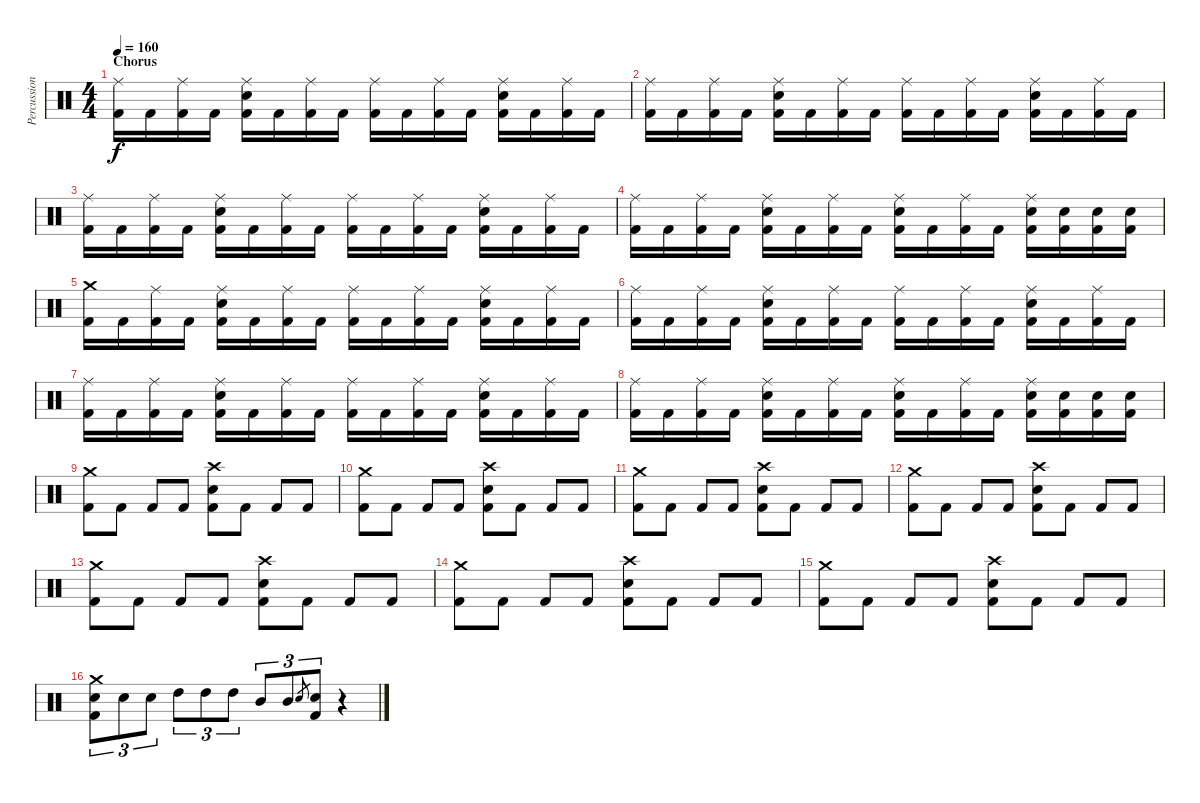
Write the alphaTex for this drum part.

\track ("Percussions" "Percussion") {instrument percussion}
\staff {score}
\articulation defaults
\ts (4 4)
\section ("" "Chorus")
\tempo 160
\clef neutral
\ks c
("Ride (middle)" "Kick (hit) 2").16{dy f} "Kick (hit) 2".16 ("Ride (middle)" "Kick (hit) 2").16 "Kick (hit) 2".16 ("Ride (middle)" "Electric Snare (hit)" "Kick (hit) 2").16 "Kick (hit) 2".16 ("Ride (middle)" "Kick (hit) 2").16 "Kick (hit) 2".16 ("Ride (middle)" "Kick (hit) 2").16 "Kick (hit) 2".16 ("Ride (middle)" "Kick (hit) 2").16 "Kick (hit) 2".16 ("Ride (middle)" "Electric Snare (hit)" "Kick (hit) 2").16 "Kick (hit) 2".16 ("Ride (middle)" "Kick (hit) 2").16 "Kick (hit) 2".16 |
("Ride (middle)" "Kick (hit) 2").16 "Kick (hit) 2".16 ("Ride (middle)" "Kick (hit) 2").16 "Kick (hit) 2".16 ("Ride (middle)" "Electric Snare (hit)" "Kick (hit) 2").16 "Kick (hit) 2".16 ("Ride (middle)" "Kick (hit) 2").16 "Kick (hit) 2".16 ("Ride (middle)" "Kick (hit) 2").16 "Kick (hit) 2".16 ("Ride (middle)" "Kick (hit) 2").16 "Kick (hit) 2".16 ("Ride (middle)" "Electric Snare (hit)" "Kick (hit) 2").16 "Kick (hit) 2".16 ("Ride (middle)" "Kick (hit) 2").16 "Kick (hit) 2".16 |
("Ride (middle)" "Kick (hit) 2").16 "Kick (hit) 2".16 ("Ride (middle)" "Kick (hit) 2").16 "Kick (hit) 2".16 ("Ride (middle)" "Electric Snare (hit)" "Kick (hit) 2").16 "Kick (hit) 2".16 ("Ride (middle)" "Kick (hit) 2").16 "Kick (hit) 2".16 ("Ride (middle)" "Kick (hit) 2").16 "Kick (hit) 2".16 ("Ride (middle)" "Kick (hit) 2").16 "Kick (hit) 2".16 ("Ride (middle)" "Electric Snare (hit)" "Kick (hit) 2").16 "Kick (hit) 2".16 ("Ride (middle)" "Kick (hit) 2").16 "Kick (hit) 2".16 |
("Ride (middle)" "Kick (hit) 2").16 "Kick (hit) 2".16 ("Ride (middle)" "Kick (hit) 2").16 "Kick (hit) 2".16 ("Ride (middle)" "Electric Snare (hit)" "Kick (hit) 2").16 "Kick (hit) 2".16 ("Ride (middle)" "Kick (hit) 2").16 "Kick (hit) 2".16 ("Ride (middle)" "Electric Snare (hit)" "Kick (hit) 2").16 "Kick (hit) 2".16 ("Ride (middle)" "Kick (hit) 2").16 "Kick (hit) 2".16 ("Ride (middle)" "Electric Snare (hit)" "Kick (hit) 2").16 ("Electric Snare (hit)" "Kick (hit) 2").16 ("Electric Snare (hit)" "Kick (hit) 2").16 ("Electric Snare (hit)" "Kick (hit) 2").16 |
("Crash medium (hit)" "Kick (hit) 2").16 "Kick (hit) 2".16 ("Ride (middle)" "Kick (hit) 2").16 "Kick (hit) 2".16 ("Ride (middle)" "Electric Snare (hit)" "Kick (hit) 2").16 "Kick (hit) 2".16 ("Ride (middle)" "Kick (hit) 2").16 "Kick (hit) 2".16 ("Ride (middle)" "Kick (hit) 2").16 "Kick (hit) 2".16 ("Ride (middle)" "Kick (hit) 2").16 "Kick (hit) 2".16 ("Ride (middle)" "Electric Snare (hit)" "Kick (hit) 2").16 "Kick (hit) 2".16 ("Ride (middle)" "Kick (hit) 2").16 "Kick (hit) 2".16 |
("Ride (middle)" "Kick (hit) 2").16 "Kick (hit) 2".16 ("Ride (middle)" "Kick (hit) 2").16 "Kick (hit) 2".16 ("Ride (middle)" "Electric Snare (hit)" "Kick (hit) 2").16 "Kick (hit) 2".16 ("Ride (middle)" "Kick (hit) 2").16 "Kick (hit) 2".16 ("Ride (middle)" "Kick (hit) 2").16 "Kick (hit) 2".16 ("Ride (middle)" "Kick (hit) 2").16 "Kick (hit) 2".16 ("Ride (middle)" "Electric Snare (hit)" "Kick (hit) 2").16 "Kick (hit) 2".16 ("Ride (middle)" "Kick (hit) 2").16 "Kick (hit) 2".16 |
("Ride (middle)" "Kick (hit) 2").16 "Kick (hit) 2".16 ("Ride (middle)" "Kick (hit) 2").16 "Kick (hit) 2".16 ("Ride (middle)" "Electric Snare (hit)" "Kick (hit) 2").16 "Kick (hit) 2".16 ("Ride (middle)" "Kick (hit) 2").16 "Kick (hit) 2".16 ("Ride (middle)" "Kick (hit) 2").16 "Kick (hit) 2".16 ("Ride (middle)" "Kick (hit) 2").16 "Kick (hit) 2".16 ("Ride (middle)" "Electric Snare (hit)" "Kick (hit) 2").16 "Kick (hit) 2".16 ("Ride (middle)" "Kick (hit) 2").16 "Kick (hit) 2".16 |
("Ride (middle)" "Kick (hit) 2").16 "Kick (hit) 2".16 ("Ride (middle)" "Kick (hit) 2").16 "Kick (hit) 2".16 ("Ride (middle)" "Electric Snare (hit)" "Kick (hit) 2").16 "Kick (hit) 2".16 ("Ride (middle)" "Kick (hit) 2").16 "Kick (hit) 2".16 ("Ride (middle)" "Electric Snare (hit)" "Kick (hit) 2").16 "Kick (hit) 2".16 ("Ride (middle)" "Kick (hit) 2").16 "Kick (hit) 2".16 ("Ride (middle)" "Electric Snare (hit)" "Kick (hit) 2").16 ("Electric Snare (hit)" "Kick (hit) 2").16 ("Electric Snare (hit)" "Kick (hit) 2").16 ("Electric Snare (hit)" "Kick (hit) 2").16 |
("Crash medium (hit)" "Kick (hit) 2").8 "Kick (hit) 2".8 "Kick (hit) 2".8 "Kick (hit) 2".8 ("Crash high (hit)" "Electric Snare (hit)" "Kick (hit) 2").8 "Kick (hit) 2".8 "Kick (hit) 2".8 "Kick (hit) 2".8 |
("Crash medium (hit)" "Kick (hit) 2").8 "Kick (hit) 2".8 "Kick (hit) 2".8 "Kick (hit) 2".8 ("Crash high (hit)" "Electric Snare (hit)" "Kick (hit) 2").8 "Kick (hit) 2".8 "Kick (hit) 2".8 "Kick (hit) 2".8 |
("Crash medium (hit)" "Kick (hit) 2").8 "Kick (hit) 2".8 "Kick (hit) 2".8 "Kick (hit) 2".8 ("Crash high (hit)" "Electric Snare (hit)" "Kick (hit) 2").8 "Kick (hit) 2".8 "Kick (hit) 2".8 "Kick (hit) 2".8 |
("Crash medium (hit)" "Kick (hit) 2").8 "Kick (hit) 2".8 "Kick (hit) 2".8 "Kick (hit) 2".8 ("Crash high (hit)" "Electric Snare (hit)" "Kick (hit) 2").8 "Kick (hit) 2".8 "Kick (hit) 2".8 "Kick (hit) 2".8 |
("Crash medium (hit)" "Kick (hit) 2").8 "Kick (hit) 2".8 "Kick (hit) 2".8 "Kick (hit) 2".8 ("Crash high (hit)" "Electric Snare (hit)" "Kick (hit) 2").8 "Kick (hit) 2".8 "Kick (hit) 2".8 "Kick (hit) 2".8 |
("Crash medium (hit)" "Kick (hit) 2").8 "Kick (hit) 2".8 "Kick (hit) 2".8 "Kick (hit) 2".8 ("Crash high (hit)" "Electric Snare (hit)" "Kick (hit) 2").8 "Kick (hit) 2".8 "Kick (hit) 2".8 "Kick (hit) 2".8 |
("Crash medium (hit)" "Kick (hit) 2").8 "Kick (hit) 2".8 "Kick (hit) 2".8 "Kick (hit) 2".8 ("Crash high (hit)" "Electric Snare (hit)" "Kick (hit) 2").8 "Kick (hit) 2".8 "Kick (hit) 2".8 "Kick (hit) 2".8 |
("Crash medium (hit)" "Electric Snare (hit)" "Kick (hit) 2").8{tu (3 2)} "Electric Snare (hit)".8{tu (3 2)} "Electric Snare (hit)".8{tu (3 2)} "High Tom (hit)".8{tu (3 2)} "High Tom (hit)".8{tu (3 2)} "High Tom (hit)".8{tu (3 2)} "Mid Tom (hit)".8{tu (3 2)} "Mid Tom (hit)".8{tu (3 2)} "Electric Snare (hit)".8{gr} ("Electric Snare (hit)" "Kick (hit) 2").8{tu (3 2)} r.4
